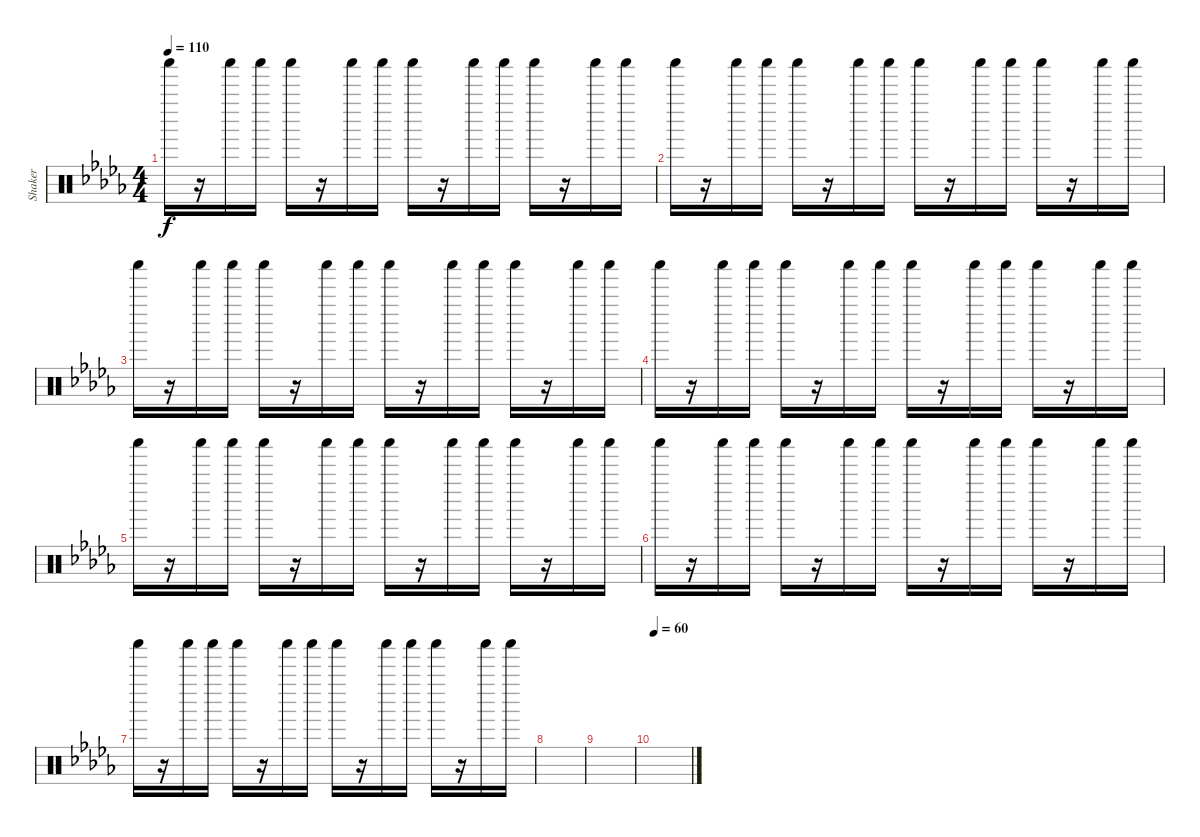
\track ("Shaker" "Shaker") {instrument percussion}
\staff {score}
\articulation defaults
\ts (4 4)
\tempo 110
\clef neutral
\ks db "Shaker (hit)".16{dy f}
r.16 "Shaker (hit)".16 "Shaker (hit)".16 "Shaker (hit)".16 r.16 "Shaker (hit)".16 "Shaker (hit)".16 "Shaker (hit)".16 r.16 "Shaker (hit)".16 "Shaker (hit)".16 "Shaker (hit)".16 r.16 "Shaker (hit)".16 "Shaker (hit)".16 |
"Shaker (hit)".16 r.16 "Shaker (hit)".16 "Shaker (hit)".16 "Shaker (hit)".16 r.16 "Shaker (hit)".16 "Shaker (hit)".16 "Shaker (hit)".16 r.16 "Shaker (hit)".16 "Shaker (hit)".16 "Shaker (hit)".16 r.16 "Shaker (hit)".16 "Shaker (hit)".16 |
"Shaker (hit)".16 r.16 "Shaker (hit)".16 "Shaker (hit)".16 "Shaker (hit)".16 r.16 "Shaker (hit)".16 "Shaker (hit)".16 "Shaker (hit)".16 r.16 "Shaker (hit)".16 "Shaker (hit)".16 "Shaker (hit)".16 r.16 "Shaker (hit)".16 "Shaker (hit)".16 |
"Shaker (hit)".16 r.16 "Shaker (hit)".16 "Shaker (hit)".16 "Shaker (hit)".16 r.16 "Shaker (hit)".16 "Shaker (hit)".16 "Shaker (hit)".16 r.16 "Shaker (hit)".16 "Shaker (hit)".16 "Shaker (hit)".16 r.16 "Shaker (hit)".16 "Shaker (hit)".16 |
"Shaker (hit)".16 r.16 "Shaker (hit)".16 "Shaker (hit)".16 "Shaker (hit)".16 r.16 "Shaker (hit)".16 "Shaker (hit)".16 "Shaker (hit)".16 r.16 "Shaker (hit)".16 "Shaker (hit)".16 "Shaker (hit)".16 r.16 "Shaker (hit)".16 "Shaker (hit)".16 |
"Shaker (hit)".16 r.16 "Shaker (hit)".16 "Shaker (hit)".16 "Shaker (hit)".16 r.16 "Shaker (hit)".16 "Shaker (hit)".16 "Shaker (hit)".16 r.16 "Shaker (hit)".16 "Shaker (hit)".16 "Shaker (hit)".16 r.16 "Shaker (hit)".16 "Shaker (hit)".16 |
"Shaker (hit)".16 r.16 "Shaker (hit)".16 "Shaker (hit)".16 "Shaker (hit)".16 r.16 "Shaker (hit)".16 "Shaker (hit)".16 "Shaker (hit)".16 r.16 "Shaker (hit)".16 "Shaker (hit)".16 "Shaker (hit)".16 r.16 "Shaker (hit)".16 "Shaker (hit)".16 |
|
|
\tempo 60
